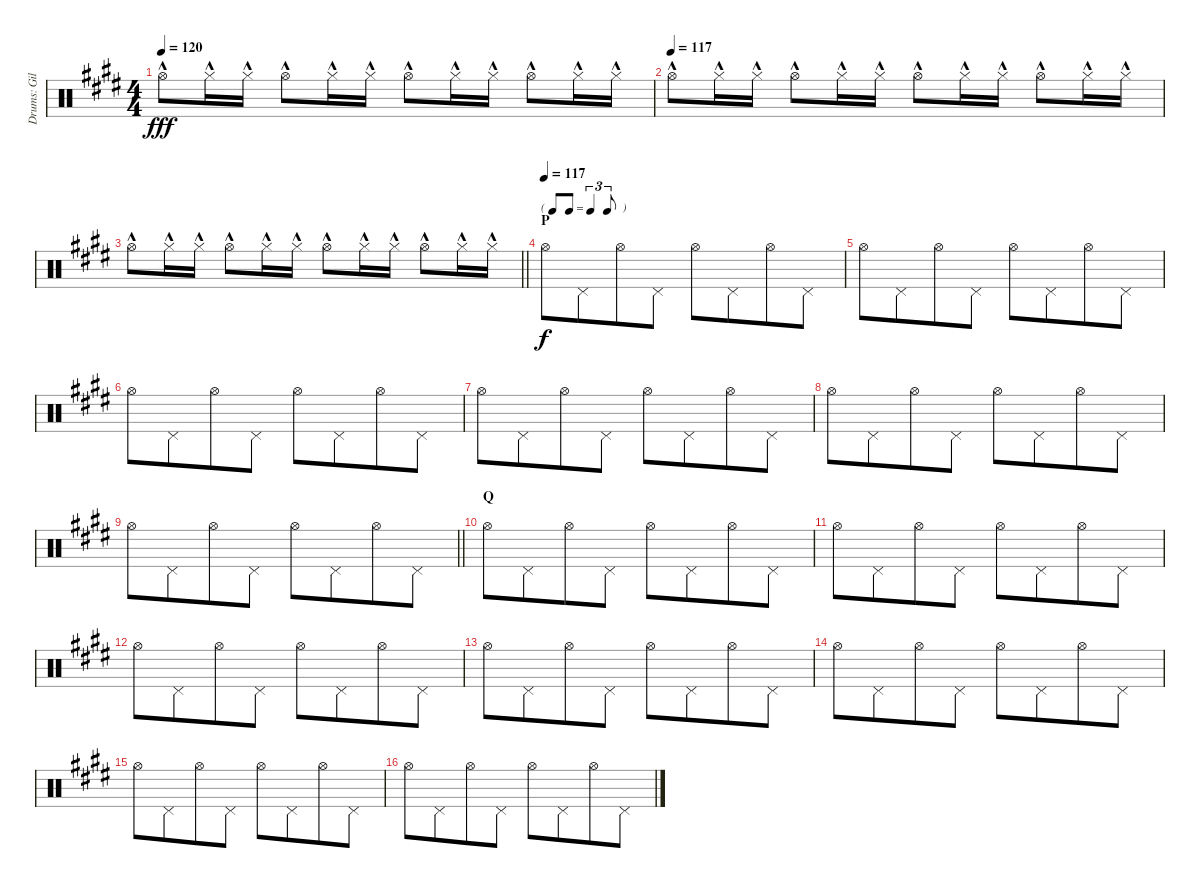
\track ("Drums: Gil" "Drums: Gil") {instrument percussion}
\staff {score}
\articulation defaults
\ts (4 4)
\tempo 120
\clef neutral
\ks e "Hi-Hat (open)"{hac}.8{dy fff} "Hi-Hat (closed)"{hac}.16 "Hi-Hat (closed)"{hac}.16 "Hi-Hat (open)"{hac}.8 "Hi-Hat (closed)"{hac}.16 "Hi-Hat (closed)"{hac}.16 "Hi-Hat (open)"{hac}.8 "Hi-Hat (closed)"{hac}.16 "Hi-Hat (closed)"{hac}.16 "Hi-Hat (open)"{hac}.8 "Hi-Hat (closed)"{hac}.16 "Hi-Hat (closed)"{hac}.16
|
\tempo (117)
"Hi-Hat (open)"{hac}.8 "Hi-Hat (closed)"{hac}.16 "Hi-Hat (closed)"{hac}.16 "Hi-Hat (open)"{hac}.8 "Hi-Hat (closed)"{hac}.16 "Hi-Hat (closed)"{hac}.16 "Hi-Hat (open)"{hac}.8 "Hi-Hat (closed)"{hac}.16 "Hi-Hat (closed)"{hac}.16 "Hi-Hat (open)"{hac}.8 "Hi-Hat (closed)"{hac}.16 "Hi-Hat (closed)"{hac}.16 |
\barLineRight lightlight "Hi-Hat (open)"{hac}.8 "Hi-Hat (closed)"{hac}.16 "Hi-Hat (closed)"{hac}.16 "Hi-Hat (open)"{hac}.8 "Hi-Hat (closed)"{hac}.16 "Hi-Hat (closed)"{hac}.16 "Hi-Hat (open)"{hac}.8 "Hi-Hat (closed)"{hac}.16 "Hi-Hat (closed)"{hac}.16 "Hi-Hat (open)"{hac}.8 "Hi-Hat (closed)"{hac}.16 "Hi-Hat (closed)"{hac}.16
|
\tf triplet8th
\section ("" "P")
\tempo (117)
"Hi-Hat (open)".8{dy f} "Pedal Hi-Hat (hit)".8{beam merge} "Hi-Hat (open)".8 "Pedal Hi-Hat (hit)".8 "Hi-Hat (open)".8 "Pedal Hi-Hat (hit)".8{beam merge} "Hi-Hat (open)".8 "Pedal Hi-Hat (hit)".8 |
"Hi-Hat (open)".8 "Pedal Hi-Hat (hit)".8{beam merge} "Hi-Hat (open)".8 "Pedal Hi-Hat (hit)".8 "Hi-Hat (open)".8 "Pedal Hi-Hat (hit)".8{beam merge} "Hi-Hat (open)".8 "Pedal Hi-Hat (hit)".8 |
"Hi-Hat (open)".8 "Pedal Hi-Hat (hit)".8{beam merge} "Hi-Hat (open)".8 "Pedal Hi-Hat (hit)".8 "Hi-Hat (open)".8 "Pedal Hi-Hat (hit)".8{beam merge} "Hi-Hat (open)".8 "Pedal Hi-Hat (hit)".8 |
"Hi-Hat (open)".8 "Pedal Hi-Hat (hit)".8{beam merge} "Hi-Hat (open)".8 "Pedal Hi-Hat (hit)".8 "Hi-Hat (open)".8 "Pedal Hi-Hat (hit)".8{beam merge} "Hi-Hat (open)".8 "Pedal Hi-Hat (hit)".8 |
"Hi-Hat (open)".8 "Pedal Hi-Hat (hit)".8{beam merge} "Hi-Hat (open)".8 "Pedal Hi-Hat (hit)".8 "Hi-Hat (open)".8 "Pedal Hi-Hat (hit)".8{beam merge} "Hi-Hat (open)".8 "Pedal Hi-Hat (hit)".8 |
\barLineRight lightlight "Hi-Hat (open)".8 "Pedal Hi-Hat (hit)".8{beam merge} "Hi-Hat (open)".8 "Pedal Hi-Hat (hit)".8 "Hi-Hat (open)".8 "Pedal Hi-Hat (hit)".8{beam merge} "Hi-Hat (open)".8 "Pedal Hi-Hat (hit)".8
|
\section ("" "Q")
"Hi-Hat (open)".8 "Pedal Hi-Hat (hit)".8{beam merge} "Hi-Hat (open)".8 "Pedal Hi-Hat (hit)".8 "Hi-Hat (open)".8 "Pedal Hi-Hat (hit)".8{beam merge} "Hi-Hat (open)".8 "Pedal Hi-Hat (hit)".8 |
"Hi-Hat (open)".8 "Pedal Hi-Hat (hit)".8{beam merge} "Hi-Hat (open)".8 "Pedal Hi-Hat (hit)".8 "Hi-Hat (open)".8 "Pedal Hi-Hat (hit)".8{beam merge} "Hi-Hat (open)".8 "Pedal Hi-Hat (hit)".8 |
"Hi-Hat (open)".8 "Pedal Hi-Hat (hit)".8{beam merge} "Hi-Hat (open)".8 "Pedal Hi-Hat (hit)".8 "Hi-Hat (open)".8 "Pedal Hi-Hat (hit)".8{beam merge} "Hi-Hat (open)".8 "Pedal Hi-Hat (hit)".8 |
"Hi-Hat (open)".8 "Pedal Hi-Hat (hit)".8{beam merge} "Hi-Hat (open)".8 "Pedal Hi-Hat (hit)".8 "Hi-Hat (open)".8 "Pedal Hi-Hat (hit)".8{beam merge} "Hi-Hat (open)".8 "Pedal Hi-Hat (hit)".8 |
"Hi-Hat (open)".8 "Pedal Hi-Hat (hit)".8{beam merge} "Hi-Hat (open)".8 "Pedal Hi-Hat (hit)".8 "Hi-Hat (open)".8 "Pedal Hi-Hat (hit)".8{beam merge} "Hi-Hat (open)".8 "Pedal Hi-Hat (hit)".8 |
"Hi-Hat (open)".8 "Pedal Hi-Hat (hit)".8{beam merge} "Hi-Hat (open)".8 "Pedal Hi-Hat (hit)".8 "Hi-Hat (open)".8 "Pedal Hi-Hat (hit)".8{beam merge} "Hi-Hat (open)".8 "Pedal Hi-Hat (hit)".8 |
"Hi-Hat (open)".8 "Pedal Hi-Hat (hit)".8{beam merge} "Hi-Hat (open)".8 "Pedal Hi-Hat (hit)".8 "Hi-Hat (open)".8 "Pedal Hi-Hat (hit)".8{beam merge} "Hi-Hat (open)".8 "Pedal Hi-Hat (hit)".8
